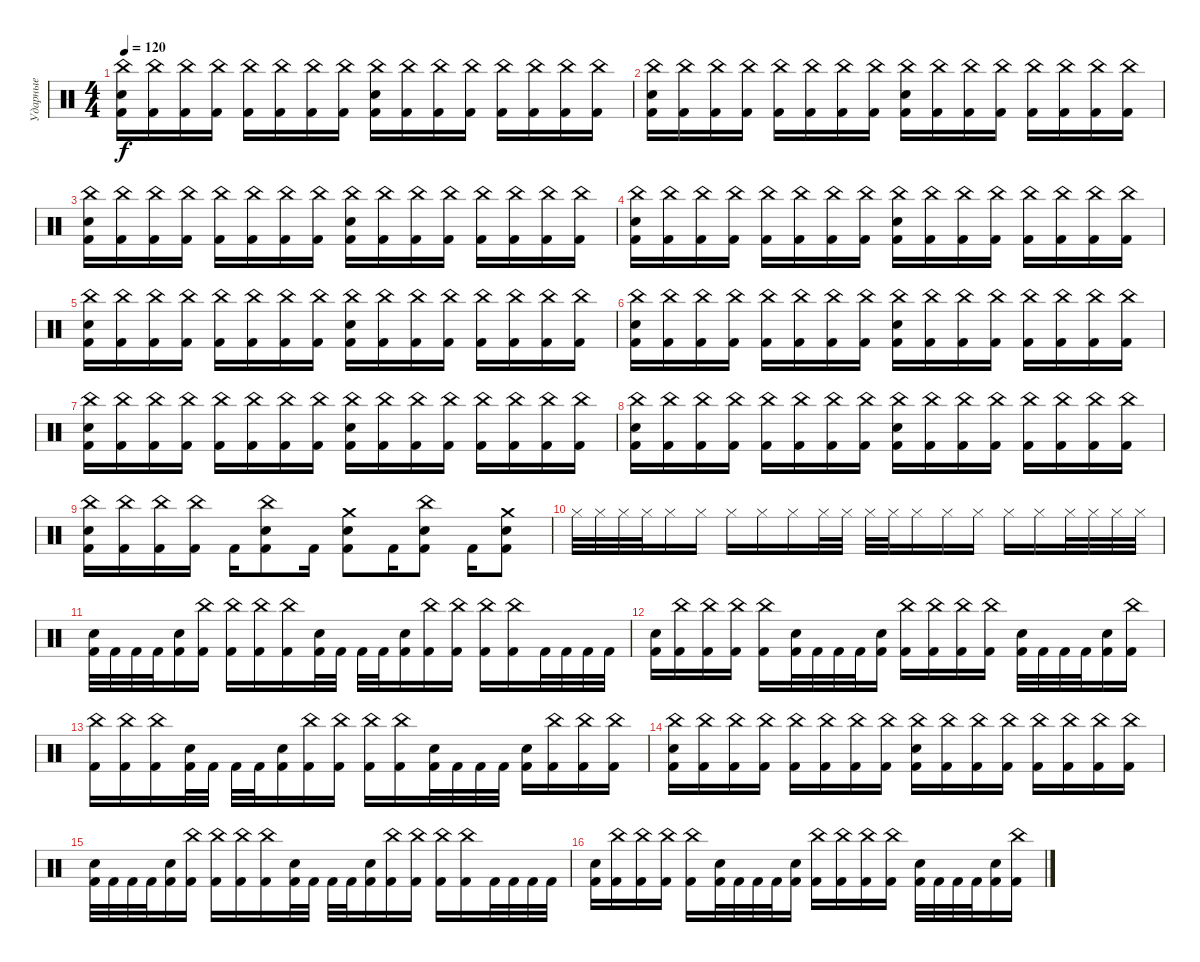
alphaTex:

\track ("Ударные" "Ударные") {instrument percussion}
\staff {score}
\articulation defaults
\ts (4 4)
\tempo 120
\clef neutral
\ks c
("China (hit)" "Snare (hit) 2" "Kick (hit) 2").16{dy f} ("China (hit)" "Kick (hit) 2").16 ("China (hit)" "Kick (hit) 2").16 ("China (hit)" "Kick (hit) 2").16 ("China (hit)" "Kick (hit) 2").16 ("China (hit)" "Kick (hit) 2").16 ("China (hit)" "Kick (hit) 2").16 ("China (hit)" "Kick (hit) 2").16 ("China (hit)" "Snare (hit) 2" "Kick (hit) 2").16 ("China (hit)" "Kick (hit) 2").16 ("China (hit)" "Kick (hit) 2").16 ("China (hit)" "Kick (hit) 2").16 ("China (hit)" "Kick (hit) 2").16 ("China (hit)" "Kick (hit) 2").16 ("China (hit)" "Kick (hit) 2").16 ("China (hit)" "Kick (hit) 2").16 |
("China (hit)" "Snare (hit) 2" "Kick (hit) 2").16 ("China (hit)" "Kick (hit) 2").16 ("China (hit)" "Kick (hit) 2").16 ("China (hit)" "Kick (hit) 2").16 ("China (hit)" "Kick (hit) 2").16 ("China (hit)" "Kick (hit) 2").16 ("China (hit)" "Kick (hit) 2").16 ("China (hit)" "Kick (hit) 2").16 ("China (hit)" "Snare (hit) 2" "Kick (hit) 2").16 ("China (hit)" "Kick (hit) 2").16 ("China (hit)" "Kick (hit) 2").16 ("China (hit)" "Kick (hit) 2").16 ("China (hit)" "Kick (hit) 2").16 ("China (hit)" "Kick (hit) 2").16 ("China (hit)" "Kick (hit) 2").16 ("China (hit)" "Kick (hit) 2").16 |
("China (hit)" "Snare (hit) 2" "Kick (hit) 2").16 ("China (hit)" "Kick (hit) 2").16 ("China (hit)" "Kick (hit) 2").16 ("China (hit)" "Kick (hit) 2").16 ("China (hit)" "Kick (hit) 2").16 ("China (hit)" "Kick (hit) 2").16 ("China (hit)" "Kick (hit) 2").16 ("China (hit)" "Kick (hit) 2").16 ("China (hit)" "Snare (hit) 2" "Kick (hit) 2").16 ("China (hit)" "Kick (hit) 2").16 ("China (hit)" "Kick (hit) 2").16 ("China (hit)" "Kick (hit) 2").16 ("China (hit)" "Kick (hit) 2").16 ("China (hit)" "Kick (hit) 2").16 ("China (hit)" "Kick (hit) 2").16 ("China (hit)" "Kick (hit) 2").16 |
("China (hit)" "Snare (hit) 2" "Kick (hit) 2").16 ("China (hit)" "Kick (hit) 2").16 ("China (hit)" "Kick (hit) 2").16 ("China (hit)" "Kick (hit) 2").16 ("China (hit)" "Kick (hit) 2").16 ("China (hit)" "Kick (hit) 2").16 ("China (hit)" "Kick (hit) 2").16 ("China (hit)" "Kick (hit) 2").16 ("China (hit)" "Snare (hit) 2" "Kick (hit) 2").16 ("China (hit)" "Kick (hit) 2").16 ("China (hit)" "Kick (hit) 2").16 ("China (hit)" "Kick (hit) 2").16 ("China (hit)" "Kick (hit) 2").16 ("China (hit)" "Kick (hit) 2").16 ("China (hit)" "Kick (hit) 2").16 ("China (hit)" "Kick (hit) 2").16 |
("China (hit)" "Snare (hit) 2" "Kick (hit) 2").16 ("China (hit)" "Kick (hit) 2").16 ("China (hit)" "Kick (hit) 2").16 ("China (hit)" "Kick (hit) 2").16 ("China (hit)" "Kick (hit) 2").16 ("China (hit)" "Kick (hit) 2").16 ("China (hit)" "Kick (hit) 2").16 ("China (hit)" "Kick (hit) 2").16 ("China (hit)" "Snare (hit) 2" "Kick (hit) 2").16 ("China (hit)" "Kick (hit) 2").16 ("China (hit)" "Kick (hit) 2").16 ("China (hit)" "Kick (hit) 2").16 ("China (hit)" "Kick (hit) 2").16 ("China (hit)" "Kick (hit) 2").16 ("China (hit)" "Kick (hit) 2").16 ("China (hit)" "Kick (hit) 2").16 |
("China (hit)" "Snare (hit) 2" "Kick (hit) 2").16 ("China (hit)" "Kick (hit) 2").16 ("China (hit)" "Kick (hit) 2").16 ("China (hit)" "Kick (hit) 2").16 ("China (hit)" "Kick (hit) 2").16 ("China (hit)" "Kick (hit) 2").16 ("China (hit)" "Kick (hit) 2").16 ("China (hit)" "Kick (hit) 2").16 ("China (hit)" "Snare (hit) 2" "Kick (hit) 2").16 ("China (hit)" "Kick (hit) 2").16 ("China (hit)" "Kick (hit) 2").16 ("China (hit)" "Kick (hit) 2").16 ("China (hit)" "Kick (hit) 2").16 ("China (hit)" "Kick (hit) 2").16 ("China (hit)" "Kick (hit) 2").16 ("China (hit)" "Kick (hit) 2").16 |
("China (hit)" "Snare (hit) 2" "Kick (hit) 2").16 ("China (hit)" "Kick (hit) 2").16 ("China (hit)" "Kick (hit) 2").16 ("China (hit)" "Kick (hit) 2").16 ("China (hit)" "Kick (hit) 2").16 ("China (hit)" "Kick (hit) 2").16 ("China (hit)" "Kick (hit) 2").16 ("China (hit)" "Kick (hit) 2").16 ("China (hit)" "Snare (hit) 2" "Kick (hit) 2").16 ("China (hit)" "Kick (hit) 2").16 ("China (hit)" "Kick (hit) 2").16 ("China (hit)" "Kick (hit) 2").16 ("China (hit)" "Kick (hit) 2").16 ("China (hit)" "Kick (hit) 2").16 ("China (hit)" "Kick (hit) 2").16 ("China (hit)" "Kick (hit) 2").16 |
("China (hit)" "Snare (hit) 2" "Kick (hit) 2").16 ("China (hit)" "Kick (hit) 2").16 ("China (hit)" "Kick (hit) 2").16 ("China (hit)" "Kick (hit) 2").16 ("China (hit)" "Kick (hit) 2").16 ("China (hit)" "Kick (hit) 2").16 ("China (hit)" "Kick (hit) 2").16 ("China (hit)" "Kick (hit) 2").16 ("China (hit)" "Snare (hit) 2" "Kick (hit) 2").16 ("China (hit)" "Kick (hit) 2").16 ("China (hit)" "Kick (hit) 2").16 ("China (hit)" "Kick (hit) 2").16 ("China (hit)" "Kick (hit) 2").16 ("China (hit)" "Kick (hit) 2").16 ("China (hit)" "Kick (hit) 2").16 ("China (hit)" "Kick (hit) 2").16 |
("China (hit)" "Snare (hit) 2" "Kick (hit) 2").16 ("China (hit)" "Kick (hit) 2").16 ("China (hit)" "Kick (hit) 2").16 ("China (hit)" "Kick (hit) 2").16 "Kick (hit) 2".16 ("Snare (hit) 2" "China (hit)" "Kick (hit) 2").8 "Kick (hit) 2".16 ("Snare (hit) 2" "Crash medium (hit)" "Kick (hit) 2").8 "Kick (hit) 2".16 ("Snare (hit) 2" "China (hit)" "Kick (hit) 2").8 "Kick (hit) 2".16 ("Snare (hit) 2" "Crash medium (hit)" "Kick (hit) 2").8 |
"Hi-Hat (closed)".32 "Hi-Hat (closed)".32 "Hi-Hat (closed)".32 "Hi-Hat (closed)".32 "Hi-Hat (closed)".16 "Hi-Hat (closed)".16 "Hi-Hat (closed)".16 "Hi-Hat (closed)".16 "Hi-Hat (closed)".16 "Hi-Hat (closed)".32 "Hi-Hat (closed)".32 "Hi-Hat (closed)".32 "Hi-Hat (closed)".32 "Hi-Hat (closed)".16 "Hi-Hat (closed)".16 "Hi-Hat (closed)".16 "Hi-Hat (closed)".16 "Hi-Hat (closed)".16 "Hi-Hat (closed)".32 "Hi-Hat (closed)".32 "Hi-Hat (closed)".32 "Hi-Hat (closed)".32 |
("Snare (hit) 2" "Kick (hit) 2").32 "Kick (hit) 2".32 "Kick (hit) 2".32 "Kick (hit) 2".32 ("Snare (hit) 2" "Kick (hit) 2").16 ("China (hit)" "Kick (hit) 2").16 ("China (hit)" "Kick (hit) 2").16 ("China (hit)" "Kick (hit) 2").16 ("China (hit)" "Kick (hit) 2").16 ("Snare (hit) 2" "Kick (hit) 2").32 "Kick (hit) 2".32 "Kick (hit) 2".32 "Kick (hit) 2".32 ("Snare (hit) 2" "Kick (hit) 2").16 ("China (hit)" "Kick (hit) 2").16 ("China (hit)" "Kick (hit) 2").16 ("China (hit)" "Kick (hit) 2").16 ("China (hit)" "Kick (hit) 2").16 "Kick (hit) 2".32 "Kick (hit) 2".32 "Kick (hit) 2".32 "Kick (hit) 2".32 |
("Snare (hit) 2" "Kick (hit) 2").16 ("China (hit)" "Kick (hit) 2").16 ("China (hit)" "Kick (hit) 2").16 ("China (hit)" "Kick (hit) 2").16 ("China (hit)" "Kick (hit) 2").16 ("Snare (hit) 2" "Kick (hit) 2").32 "Kick (hit) 2".32 "Kick (hit) 2".32 "Kick (hit) 2".32 ("Snare (hit) 2" "Kick (hit) 2").16 ("China (hit)" "Kick (hit) 2").16 ("China (hit)" "Kick (hit) 2").16 ("China (hit)" "Kick (hit) 2").16 ("China (hit)" "Kick (hit) 2").16 ("Snare (hit) 2" "Kick (hit) 2").32 "Kick (hit) 2".32 "Kick (hit) 2".32 "Kick (hit) 2".32 ("Snare (hit) 2" "Kick (hit) 2").16 ("China (hit)" "Kick (hit) 2").16 |
("China (hit)" "Kick (hit) 2").16 ("China (hit)" "Kick (hit) 2").16 ("China (hit)" "Kick (hit) 2").16 ("Snare (hit) 2" "Kick (hit) 2").32 "Kick (hit) 2".32 "Kick (hit) 2".32 "Kick (hit) 2".32 ("Snare (hit) 2" "Kick (hit) 2").16 ("China (hit)" "Kick (hit) 2").16 ("China (hit)" "Kick (hit) 2").16 ("China (hit)" "Kick (hit) 2").16 ("China (hit)" "Kick (hit) 2").16 ("Snare (hit) 2" "Kick (hit) 2").32 "Kick (hit) 2".32 "Kick (hit) 2".32 "Kick (hit) 2".32 ("Snare (hit) 2" "Kick (hit) 2").16 ("China (hit)" "Kick (hit) 2").16 ("China (hit)" "Kick (hit) 2").16 ("China (hit)" "Kick (hit) 2").16 |
("China (hit)" "Snare (hit) 2" "Kick (hit) 2").16 ("China (hit)" "Kick (hit) 2").16 ("China (hit)" "Kick (hit) 2").16 ("China (hit)" "Kick (hit) 2").16 ("China (hit)" "Kick (hit) 2").16 ("China (hit)" "Kick (hit) 2").16 ("China (hit)" "Kick (hit) 2").16 ("China (hit)" "Kick (hit) 2").16 ("China (hit)" "Snare (hit) 2" "Kick (hit) 2").16 ("China (hit)" "Kick (hit) 2").16 ("China (hit)" "Kick (hit) 2").16 ("China (hit)" "Kick (hit) 2").16 ("China (hit)" "Kick (hit) 2").16 ("China (hit)" "Kick (hit) 2").16 ("China (hit)" "Kick (hit) 2").16 ("China (hit)" "Kick (hit) 2").16 |
("Snare (hit) 2" "Kick (hit) 2").32 "Kick (hit) 2".32 "Kick (hit) 2".32 "Kick (hit) 2".32 ("Snare (hit) 2" "Kick (hit) 2").16 ("China (hit)" "Kick (hit) 2").16 ("China (hit)" "Kick (hit) 2").16 ("China (hit)" "Kick (hit) 2").16 ("China (hit)" "Kick (hit) 2").16 ("Snare (hit) 2" "Kick (hit) 2").32 "Kick (hit) 2".32 "Kick (hit) 2".32 "Kick (hit) 2".32 ("Snare (hit) 2" "Kick (hit) 2").16 ("China (hit)" "Kick (hit) 2").16 ("China (hit)" "Kick (hit) 2").16 ("China (hit)" "Kick (hit) 2").16 ("China (hit)" "Kick (hit) 2").16 "Kick (hit) 2".32 "Kick (hit) 2".32 "Kick (hit) 2".32 "Kick (hit) 2".32 |
("Snare (hit) 2" "Kick (hit) 2").16 ("China (hit)" "Kick (hit) 2").16 ("China (hit)" "Kick (hit) 2").16 ("China (hit)" "Kick (hit) 2").16 ("China (hit)" "Kick (hit) 2").16 ("Snare (hit) 2" "Kick (hit) 2").32 "Kick (hit) 2".32 "Kick (hit) 2".32 "Kick (hit) 2".32 ("Snare (hit) 2" "Kick (hit) 2").16 ("China (hit)" "Kick (hit) 2").16 ("China (hit)" "Kick (hit) 2").16 ("China (hit)" "Kick (hit) 2").16 ("China (hit)" "Kick (hit) 2").16 ("Snare (hit) 2" "Kick (hit) 2").32 "Kick (hit) 2".32 "Kick (hit) 2".32 "Kick (hit) 2".32 ("Snare (hit) 2" "Kick (hit) 2").16 ("China (hit)" "Kick (hit) 2").16
